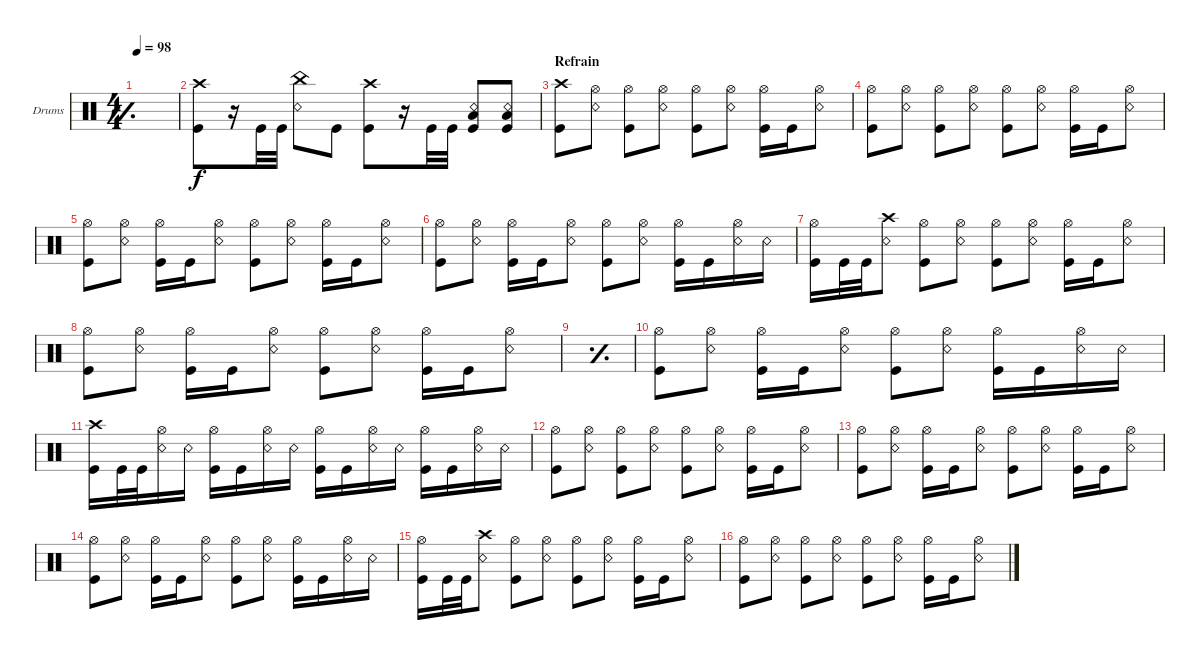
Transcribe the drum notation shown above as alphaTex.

\defaultSystemsLayout 4
\bracketExtendMode groupsimilarinstruments
\firstSystemTrackNameOrientation horizontal
\otherSystemsTrackNameOrientation horizontal
\track ("Drumkit" "Drums") {instrument percussion}
\staff {score}
\articulation defaults
\ts (4 4)
\tempo 98
\clef neutral
\simile simple
\ks c
|
("Kick (hit)" "Crash high (hit)").8 r.16 "Kick (hit)".32 "Kick (hit)".32 ("China (hit)" "Snare (rim shot)").8 "Kick (hit)".8 ("Crash high (hit)" "Kick (hit)").8 r.16 "Kick (hit)".32 "Kick (hit)".32 ("Low Tom (hit)" "Snare (rim shot)" "Kick (hit)").8 ("Low Tom (hit)" "Snare (rim shot)" "Kick (hit)").8 |
\section ("" "Refrain")
("Kick (hit)" "Crash high (hit)").8 ("Snare (rim shot)" "Hi-Hat (open)").8 ("Kick (hit)" "Hi-Hat (open)").8 ("Snare (rim shot)" "Hi-Hat (open)").8 ("Kick (hit)" "Hi-Hat (open)").8 ("Snare (rim shot)" "Hi-Hat (open)").8 ("Kick (hit)" "Hi-Hat (open)").16 "Kick (hit)".16 ("Snare (rim shot)" "Hi-Hat (open)").8 |
("Kick (hit)" "Hi-Hat (open)").8 ("Snare (rim shot)" "Hi-Hat (open)").8 ("Kick (hit)" "Hi-Hat (open)").8 ("Snare (rim shot)" "Hi-Hat (open)").8 ("Kick (hit)" "Hi-Hat (open)").8 ("Snare (rim shot)" "Hi-Hat (open)").8 ("Kick (hit)" "Hi-Hat (open)").16 "Kick (hit)".16 ("Snare (rim shot)" "Hi-Hat (open)").8 |
("Kick (hit)" "Hi-Hat (open)").8 ("Snare (rim shot)" "Hi-Hat (open)").8 ("Kick (hit)" "Hi-Hat (open)").16 "Kick (hit)".16 ("Snare (rim shot)" "Hi-Hat (open)").8 ("Kick (hit)" "Hi-Hat (open)").8 ("Snare (rim shot)" "Hi-Hat (open)").8 ("Kick (hit)" "Hi-Hat (open)").16 "Kick (hit)".16 ("Snare (rim shot)" "Hi-Hat (open)").8 |
("Kick (hit)" "Hi-Hat (open)").8 ("Snare (rim shot)" "Hi-Hat (open)").8 ("Kick (hit)" "Hi-Hat (open)").16 "Kick (hit)".16 ("Snare (rim shot)" "Hi-Hat (open)").8 ("Kick (hit)" "Hi-Hat (open)").8 ("Snare (rim shot)" "Hi-Hat (open)").8 ("Kick (hit)" "Hi-Hat (open)").16 "Kick (hit)".16 ("Snare (rim shot)" "Hi-Hat (open)").16 "Snare (rim shot)".16 |
("Kick (hit)" "Hi-Hat (open)").16 "Kick (hit)".32 "Kick (hit)".32 ("Snare (rim shot)" "Crash high (hit)").8 ("Kick (hit)" "Hi-Hat (open)").8 ("Snare (rim shot)" "Hi-Hat (open)").8 ("Kick (hit)" "Hi-Hat (open)").8 ("Snare (rim shot)" "Hi-Hat (open)").8 ("Kick (hit)" "Hi-Hat (open)").16 "Kick (hit)".16 ("Snare (rim shot)" "Hi-Hat (open)").8 |
("Kick (hit)" "Hi-Hat (open)").8 ("Snare (rim shot)" "Hi-Hat (open)").8 ("Kick (hit)" "Hi-Hat (open)").16 "Kick (hit)".16 ("Snare (rim shot)" "Hi-Hat (open)").8 ("Kick (hit)" "Hi-Hat (open)").8 ("Snare (rim shot)" "Hi-Hat (open)").8 ("Kick (hit)" "Hi-Hat (open)").16 "Kick (hit)".16 ("Snare (rim shot)" "Hi-Hat (open)").8 |
\simile simple
|
\simile none
("Kick (hit)" "Hi-Hat (open)").8 ("Snare (rim shot)" "Hi-Hat (open)").8 ("Kick (hit)" "Hi-Hat (open)").16 "Kick (hit)".16 ("Snare (rim shot)" "Hi-Hat (open)").8 ("Kick (hit)" "Hi-Hat (open)").8 ("Snare (rim shot)" "Hi-Hat (open)").8 ("Kick (hit)" "Hi-Hat (open)").16 "Kick (hit)".16 ("Snare (rim shot)" "Hi-Hat (open)").16 "Snare (rim shot)".16 |
("Kick (hit)" "Crash high (hit)").16 "Kick (hit)".32 "Kick (hit)".32 ("Snare (rim shot)" "Hi-Hat (open)").16 "Snare (rim shot)".16 ("Kick (hit)" "Hi-Hat (open)").16 "Kick (hit)".16 ("Snare (rim shot)" "Hi-Hat (open)").16 "Snare (rim shot)".16 ("Kick (hit)" "Hi-Hat (open)").16 "Kick (hit)".16 ("Snare (rim shot)" "Hi-Hat (open)").16 "Snare (rim shot)".16 ("Kick (hit)" "Hi-Hat (open)").16 "Kick (hit)".16 ("Snare (rim shot)" "Hi-Hat (open)").16 "Snare (rim shot)".16 |
("Kick (hit)" "Hi-Hat (open)").8 ("Snare (rim shot)" "Hi-Hat (open)").8 ("Kick (hit)" "Hi-Hat (open)").8 ("Snare (rim shot)" "Hi-Hat (open)").8 ("Kick (hit)" "Hi-Hat (open)").8 ("Snare (rim shot)" "Hi-Hat (open)").8 ("Kick (hit)" "Hi-Hat (open)").16 "Kick (hit)".16 ("Snare (rim shot)" "Hi-Hat (open)").8 |
("Kick (hit)" "Hi-Hat (open)").8 ("Snare (rim shot)" "Hi-Hat (open)").8 ("Kick (hit)" "Hi-Hat (open)").16 "Kick (hit)".16 ("Snare (rim shot)" "Hi-Hat (open)").8 ("Kick (hit)" "Hi-Hat (open)").8 ("Snare (rim shot)" "Hi-Hat (open)").8 ("Kick (hit)" "Hi-Hat (open)").16 "Kick (hit)".16 ("Snare (rim shot)" "Hi-Hat (open)").8 |
("Kick (hit)" "Hi-Hat (open)").8 ("Snare (rim shot)" "Hi-Hat (open)").8 ("Kick (hit)" "Hi-Hat (open)").16 "Kick (hit)".16 ("Snare (rim shot)" "Hi-Hat (open)").8 ("Kick (hit)" "Hi-Hat (open)").8 ("Snare (rim shot)" "Hi-Hat (open)").8 ("Kick (hit)" "Hi-Hat (open)").16 "Kick (hit)".16 ("Snare (rim shot)" "Hi-Hat (open)").16 "Snare (rim shot)".16 |
("Kick (hit)" "Hi-Hat (open)").16 "Kick (hit)".32 "Kick (hit)".32 ("Snare (rim shot)" "Crash high (hit)").8 ("Kick (hit)" "Hi-Hat (open)").8 ("Snare (rim shot)" "Hi-Hat (open)").8 ("Kick (hit)" "Hi-Hat (open)").8 ("Snare (rim shot)" "Hi-Hat (open)").8 ("Kick (hit)" "Hi-Hat (open)").16 "Kick (hit)".16 ("Snare (rim shot)" "Hi-Hat (open)").8 |
("Kick (hit)" "Hi-Hat (open)").8 ("Snare (rim shot)" "Hi-Hat (open)").8 ("Kick (hit)" "Hi-Hat (open)").8 ("Snare (rim shot)" "Hi-Hat (open)").8 ("Kick (hit)" "Hi-Hat (open)").8 ("Snare (rim shot)" "Hi-Hat (open)").8 ("Kick (hit)" "Hi-Hat (open)").16 "Kick (hit)".16 ("Snare (rim shot)" "Hi-Hat (open)").8
